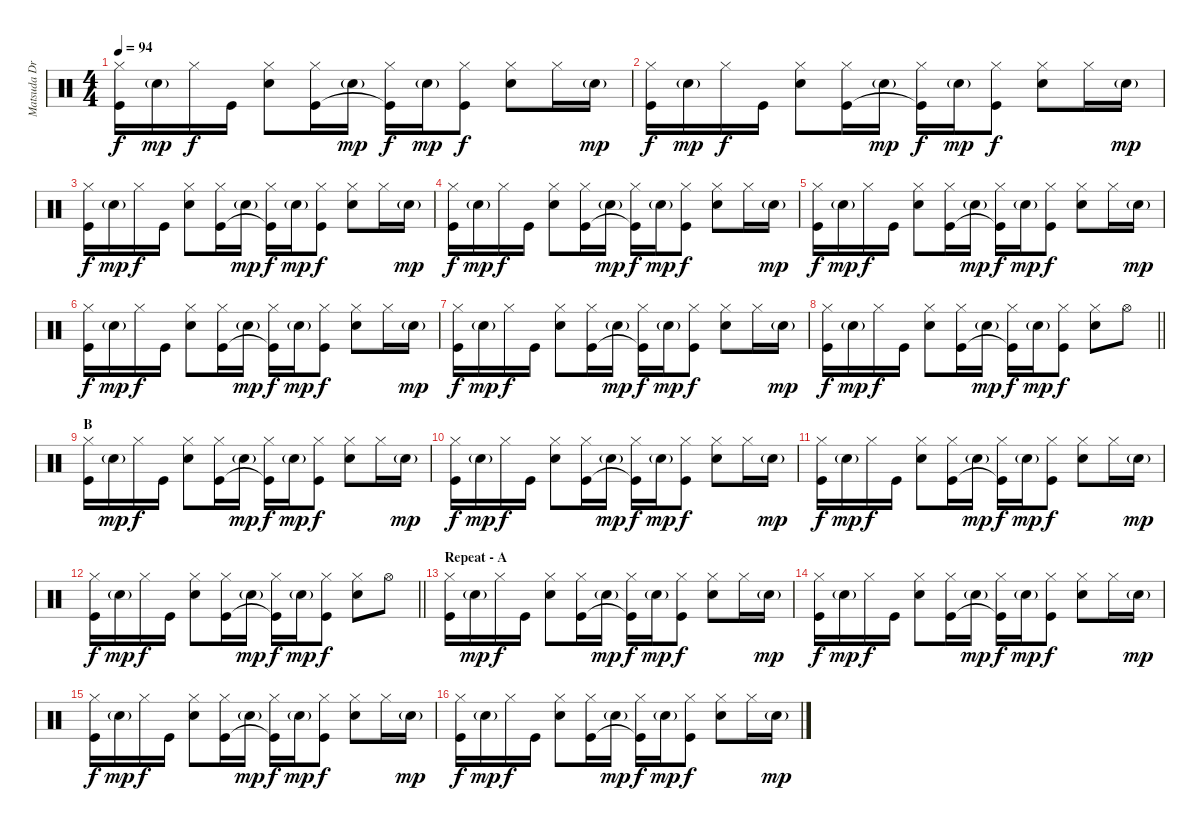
\track ("Matsuda Drums" "Matsuda Dr") {instrument percussion}
\staff {score}
\articulation defaults
\ts (4 4)
\tempo 94
\clef neutral
\ks c
("Hi-Hat (closed)" "Kick (hit)").16{dy f} "Snare (hit) 2"{g}.16{dy mp} "Hi-Hat (closed)".16{dy f} "Kick (hit)".16 ("Hi-Hat (closed)" "Snare (hit) 2").8 ("Hi-Hat (closed)" "Kick (hit)").16 "Snare (hit) 2"{g}.16{dy mp} ("Hi-Hat (closed)" "Kick (hit)"{t}).16{dy f} "Snare (hit) 2"{g}.16{dy mp} ("Hi-Hat (closed)" "Kick (hit)").8{dy f} ("Hi-Hat (closed)" "Snare (hit) 2").8 "Hi-Hat (closed)".16 "Snare (hit) 2"{g}.16{dy mp} |
("Hi-Hat (closed)" "Kick (hit)").16{dy f} "Snare (hit) 2"{g}.16{dy mp} "Hi-Hat (closed)".16{dy f} "Kick (hit)".16 ("Hi-Hat (closed)" "Snare (hit) 2").8 ("Hi-Hat (closed)" "Kick (hit)").16 "Snare (hit) 2"{g}.16{dy mp} ("Hi-Hat (closed)" "Kick (hit)"{t}).16{dy f} "Snare (hit) 2"{g}.16{dy mp} ("Hi-Hat (closed)" "Kick (hit)").8{dy f} ("Hi-Hat (closed)" "Snare (hit) 2").8 "Hi-Hat (closed)".16 "Snare (hit) 2"{g}.16{dy mp} |
("Hi-Hat (closed)" "Kick (hit)").16{dy f} "Snare (hit) 2"{g}.16{dy mp} "Hi-Hat (closed)".16{dy f} "Kick (hit)".16 ("Hi-Hat (closed)" "Snare (hit) 2").8 ("Hi-Hat (closed)" "Kick (hit)").16 "Snare (hit) 2"{g}.16{dy mp} ("Hi-Hat (closed)" "Kick (hit)"{t}).16{dy f} "Snare (hit) 2"{g}.16{dy mp} ("Hi-Hat (closed)" "Kick (hit)").8{dy f} ("Hi-Hat (closed)" "Snare (hit) 2").8 "Hi-Hat (closed)".16 "Snare (hit) 2"{g}.16{dy mp} |
("Hi-Hat (closed)" "Kick (hit)").16{dy f} "Snare (hit) 2"{g}.16{dy mp} "Hi-Hat (closed)".16{dy f} "Kick (hit)".16 ("Hi-Hat (closed)" "Snare (hit) 2").8 ("Hi-Hat (closed)" "Kick (hit)").16 "Snare (hit) 2"{g}.16{dy mp} ("Hi-Hat (closed)" "Kick (hit)"{t}).16{dy f} "Snare (hit) 2"{g}.16{dy mp} ("Hi-Hat (closed)" "Kick (hit)").8{dy f} ("Hi-Hat (closed)" "Snare (hit) 2").8 "Hi-Hat (closed)".16 "Snare (hit) 2"{g}.16{dy mp} |
("Hi-Hat (closed)" "Kick (hit)").16{dy f} "Snare (hit) 2"{g}.16{dy mp} "Hi-Hat (closed)".16{dy f} "Kick (hit)".16 ("Hi-Hat (closed)" "Snare (hit) 2").8 ("Hi-Hat (closed)" "Kick (hit)").16 "Snare (hit) 2"{g}.16{dy mp} ("Hi-Hat (closed)" "Kick (hit)"{t}).16{dy f} "Snare (hit) 2"{g}.16{dy mp} ("Hi-Hat (closed)" "Kick (hit)").8{dy f} ("Hi-Hat (closed)" "Snare (hit) 2").8 "Hi-Hat (closed)".16 "Snare (hit) 2"{g}.16{dy mp} |
("Hi-Hat (closed)" "Kick (hit)").16{dy f} "Snare (hit) 2"{g}.16{dy mp} "Hi-Hat (closed)".16{dy f} "Kick (hit)".16 ("Hi-Hat (closed)" "Snare (hit) 2").8 ("Hi-Hat (closed)" "Kick (hit)").16 "Snare (hit) 2"{g}.16{dy mp} ("Hi-Hat (closed)" "Kick (hit)"{t}).16{dy f} "Snare (hit) 2"{g}.16{dy mp} ("Hi-Hat (closed)" "Kick (hit)").8{dy f} ("Hi-Hat (closed)" "Snare (hit) 2").8 "Hi-Hat (closed)".16 "Snare (hit) 2"{g}.16{dy mp} |
("Hi-Hat (closed)" "Kick (hit)").16{dy f} "Snare (hit) 2"{g}.16{dy mp} "Hi-Hat (closed)".16{dy f} "Kick (hit)".16 ("Hi-Hat (closed)" "Snare (hit) 2").8 ("Hi-Hat (closed)" "Kick (hit)").16 "Snare (hit) 2"{g}.16{dy mp} ("Hi-Hat (closed)" "Kick (hit)"{t}).16{dy f} "Snare (hit) 2"{g}.16{dy mp} ("Hi-Hat (closed)" "Kick (hit)").8{dy f} ("Hi-Hat (closed)" "Snare (hit) 2").8 "Hi-Hat (closed)".16 "Snare (hit) 2"{g}.16{dy mp} |
\barLineRight lightlight
("Hi-Hat (closed)" "Kick (hit)").16{dy f} "Snare (hit) 2"{g}.16{dy mp} "Hi-Hat (closed)".16{dy f} "Kick (hit)".16 ("Hi-Hat (closed)" "Snare (hit) 2").8 ("Hi-Hat (closed)" "Kick (hit)").16 "Snare (hit) 2"{g}.16{dy mp} ("Hi-Hat (closed)" "Kick (hit)"{t}).16{dy f} "Snare (hit) 2"{g}.16{dy mp} ("Hi-Hat (closed)" "Kick (hit)").8{dy f} ("Hi-Hat (closed)" "Snare (hit) 2").8 "Hi-Hat (open)".8 |
\section ("" "B")
("Hi-Hat (closed)" "Kick (hit)").16 "Snare (hit) 2"{g}.16{dy mp} "Hi-Hat (closed)".16{dy f} "Kick (hit)".16 ("Hi-Hat (closed)" "Snare (hit) 2").8 ("Hi-Hat (closed)" "Kick (hit)").16 "Snare (hit) 2"{g}.16{dy mp} ("Hi-Hat (closed)" "Kick (hit)"{t}).16{dy f} "Snare (hit) 2"{g}.16{dy mp} ("Hi-Hat (closed)" "Kick (hit)").8{dy f} ("Hi-Hat (closed)" "Snare (hit) 2").8 "Hi-Hat (closed)".16 "Snare (hit) 2"{g}.16{dy mp} |
("Hi-Hat (closed)" "Kick (hit)").16{dy f} "Snare (hit) 2"{g}.16{dy mp} "Hi-Hat (closed)".16{dy f} "Kick (hit)".16 ("Hi-Hat (closed)" "Snare (hit) 2").8 ("Hi-Hat (closed)" "Kick (hit)").16 "Snare (hit) 2"{g}.16{dy mp} ("Hi-Hat (closed)" "Kick (hit)"{t}).16{dy f} "Snare (hit) 2"{g}.16{dy mp} ("Hi-Hat (closed)" "Kick (hit)").8{dy f} ("Hi-Hat (closed)" "Snare (hit) 2").8 "Hi-Hat (closed)".16 "Snare (hit) 2"{g}.16{dy mp} |
("Hi-Hat (closed)" "Kick (hit)").16{dy f} "Snare (hit) 2"{g}.16{dy mp} "Hi-Hat (closed)".16{dy f} "Kick (hit)".16 ("Hi-Hat (closed)" "Snare (hit) 2").8 ("Hi-Hat (closed)" "Kick (hit)").16 "Snare (hit) 2"{g}.16{dy mp} ("Hi-Hat (closed)" "Kick (hit)"{t}).16{dy f} "Snare (hit) 2"{g}.16{dy mp} ("Hi-Hat (closed)" "Kick (hit)").8{dy f} ("Hi-Hat (closed)" "Snare (hit) 2").8 "Hi-Hat (closed)".16 "Snare (hit) 2"{g}.16{dy mp} |
\barLineRight lightlight
("Hi-Hat (closed)" "Kick (hit)").16{dy f} "Snare (hit) 2"{g}.16{dy mp} "Hi-Hat (closed)".16{dy f} "Kick (hit)".16 ("Hi-Hat (closed)" "Snare (hit) 2").8 ("Hi-Hat (closed)" "Kick (hit)").16 "Snare (hit) 2"{g}.16{dy mp} ("Hi-Hat (closed)" "Kick (hit)"{t}).16{dy f} "Snare (hit) 2"{g}.16{dy mp} ("Hi-Hat (closed)" "Kick (hit)").8{dy f} ("Hi-Hat (closed)" "Snare (hit) 2").8 "Hi-Hat (open)".8 |
\section ("" "Repeat - A")
("Hi-Hat (closed)" "Kick (hit)").16 "Snare (hit) 2"{g}.16{dy mp} "Hi-Hat (closed)".16{dy f} "Kick (hit)".16 ("Hi-Hat (closed)" "Snare (hit) 2").8 ("Hi-Hat (closed)" "Kick (hit)").16 "Snare (hit) 2"{g}.16{dy mp} ("Hi-Hat (closed)" "Kick (hit)"{t}).16{dy f} "Snare (hit) 2"{g}.16{dy mp} ("Hi-Hat (closed)" "Kick (hit)").8{dy f} ("Hi-Hat (closed)" "Snare (hit) 2").8 "Hi-Hat (closed)".16 "Snare (hit) 2"{g}.16{dy mp} |
("Hi-Hat (closed)" "Kick (hit)").16{dy f} "Snare (hit) 2"{g}.16{dy mp} "Hi-Hat (closed)".16{dy f} "Kick (hit)".16 ("Hi-Hat (closed)" "Snare (hit) 2").8 ("Hi-Hat (closed)" "Kick (hit)").16 "Snare (hit) 2"{g}.16{dy mp} ("Hi-Hat (closed)" "Kick (hit)"{t}).16{dy f} "Snare (hit) 2"{g}.16{dy mp} ("Hi-Hat (closed)" "Kick (hit)").8{dy f} ("Hi-Hat (closed)" "Snare (hit) 2").8 "Hi-Hat (closed)".16 "Snare (hit) 2"{g}.16{dy mp} |
("Hi-Hat (closed)" "Kick (hit)").16{dy f} "Snare (hit) 2"{g}.16{dy mp} "Hi-Hat (closed)".16{dy f} "Kick (hit)".16 ("Hi-Hat (closed)" "Snare (hit) 2").8 ("Hi-Hat (closed)" "Kick (hit)").16 "Snare (hit) 2"{g}.16{dy mp} ("Hi-Hat (closed)" "Kick (hit)"{t}).16{dy f} "Snare (hit) 2"{g}.16{dy mp} ("Hi-Hat (closed)" "Kick (hit)").8{dy f} ("Hi-Hat (closed)" "Snare (hit) 2").8 "Hi-Hat (closed)".16 "Snare (hit) 2"{g}.16{dy mp} |
("Hi-Hat (closed)" "Kick (hit)").16{dy f} "Snare (hit) 2"{g}.16{dy mp} "Hi-Hat (closed)".16{dy f} "Kick (hit)".16 ("Hi-Hat (closed)" "Snare (hit) 2").8 ("Hi-Hat (closed)" "Kick (hit)").16 "Snare (hit) 2"{g}.16{dy mp} ("Hi-Hat (closed)" "Kick (hit)"{t}).16{dy f} "Snare (hit) 2"{g}.16{dy mp} ("Hi-Hat (closed)" "Kick (hit)").8{dy f} ("Hi-Hat (closed)" "Snare (hit) 2").8 "Hi-Hat (closed)".16 "Snare (hit) 2"{g}.16{dy mp}
